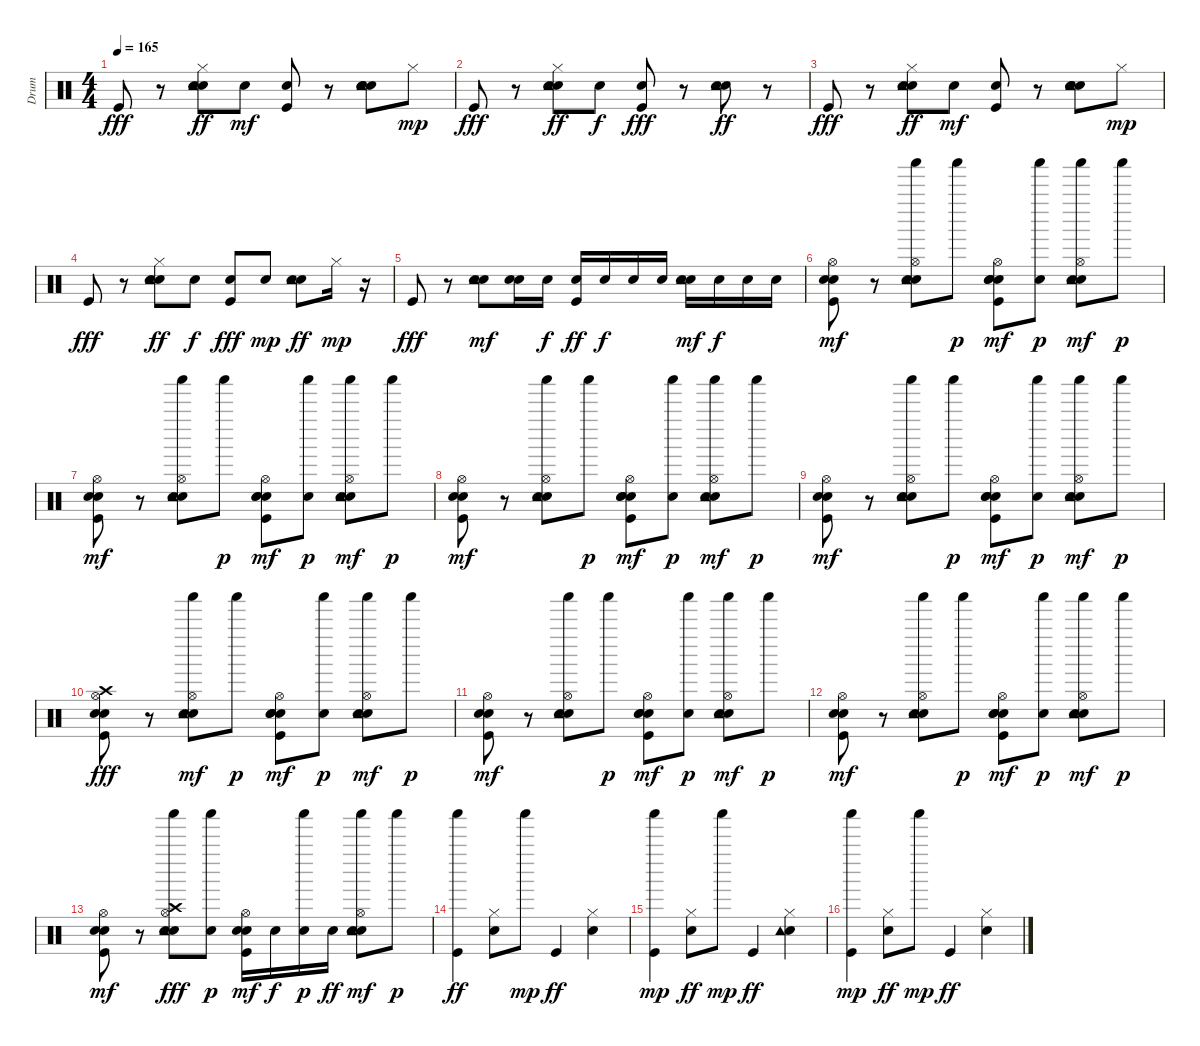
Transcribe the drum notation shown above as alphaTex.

\track ("Drum" "Drum") {instrument percussion}
\staff {score}
\articulation defaults
\ts (4 4)
\tempo 165
\clef neutral
\ks c "Kick (hit)".8{dy fff}
r.8 ("Hand Clap (hit)" "Hi-Hat (closed)" "Tambourine (hit)" "Electric Snare (hit)").8{dy ff} "Hand Clap (hit)".8{dy mf} ("Kick (hit)" "Snare (hit) 2").8 r.8 ("Hand Clap (hit)" "Tambourine (hit)" "Electric Snare (hit)" "Snare (hit) 2").8 "Hi-Hat (closed)".8{dy mp} |
"Kick (hit)".8{dy fff} r.8 ("Hand Clap (hit)" "Hi-Hat (closed)" "Tambourine (hit)" "Electric Snare (hit)").8{dy ff} "Hand Clap (hit)".8{dy f} ("Snare (hit) 2" "Kick (hit)").8{dy fff} r.8 ("Hand Clap (hit)" "Tambourine (hit)" "Electric Snare (hit)").8{dy ff} r.8 |
"Kick (hit)".8{dy fff} r.8 ("Hand Clap (hit)" "Hi-Hat (closed)" "Tambourine (hit)" "Electric Snare (hit)").8{dy ff} "Hand Clap (hit)".8{dy mf} ("Kick (hit)" "Snare (hit) 2").8 r.8 ("Hand Clap (hit)" "Tambourine (hit)" "Electric Snare (hit)" "Snare (hit) 2").8 "Hi-Hat (closed)".8{dy mp} |
"Kick (hit)".8{dy fff} r.8 ("Hand Clap (hit)" "Hi-Hat (closed)" "Tambourine (hit)" "Electric Snare (hit)").8{dy ff} "Hand Clap (hit)".8{dy f} ("Snare (hit) 2" "Kick (hit)").8{dy fff} "Snare (hit) 2".8{dy mp} ("Hand Clap (hit)" "Tambourine (hit)" "Electric Snare (hit)").8{dy ff} "Hi-Hat (closed)".16{dy mp} r.16 |
"Kick (hit)".8{dy fff} r.8 ("Hand Clap (hit)" "Tambourine (hit)" "Electric Snare (hit)").8{dy mf} ("Hand Clap (hit)" "Electric Snare (hit)").16 "Electric Snare (hit)".16{dy f} ("Kick (hit)" "Electric Snare (hit)").16{dy ff} "Electric Snare (hit)".16{dy f} "Electric Snare (hit)".16 "Electric Snare (hit)".16 ("Hand Clap (hit)" "Tambourine (hit)" "Electric Snare (hit)").16{dy mf} "Electric Snare (hit)".16{dy f} "Electric Snare (hit)".16 "Electric Snare (hit)".16 |
("Kick (hit)" "Hand Clap (hit)" "Electric Snare (hit)" "Hi-Hat (open)").8{dy mf} r.8 ("Hand Clap (hit)" "Electric Snare (hit)" "Shaker (hit)" "Tambourine (hit)" "Hi-Hat (open)").8 "Shaker (hit)".8{dy p} ("Snare (hit) 2" "Kick (hit)" "Hand Clap (hit)" "Electric Snare (hit)" "Hi-Hat (open)").8{dy mf} ("Snare (hit) 2" "Shaker (hit)").8{dy p} ("Hand Clap (hit)" "Tambourine (hit)" "Electric Snare (hit)" "Shaker (hit)" "Hi-Hat (open)").8{dy mf} "Shaker (hit)".8{dy p} |
("Kick (hit)" "Hand Clap (hit)" "Electric Snare (hit)" "Hi-Hat (open)").8{dy mf} r.8 ("Hand Clap (hit)" "Electric Snare (hit)" "Shaker (hit)" "Tambourine (hit)" "Hi-Hat (open)").8 "Shaker (hit)".8{dy p} ("Snare (hit) 2" "Kick (hit)" "Hand Clap (hit)" "Electric Snare (hit)" "Hi-Hat (open)").8{dy mf} ("Snare (hit) 2" "Shaker (hit)").8{dy p} ("Hand Clap (hit)" "Tambourine (hit)" "Electric Snare (hit)" "Shaker (hit)" "Hi-Hat (open)").8{dy mf} "Shaker (hit)".8{dy p} |
("Kick (hit)" "Hand Clap (hit)" "Electric Snare (hit)" "Hi-Hat (open)").8{dy mf} r.8 ("Hand Clap (hit)" "Electric Snare (hit)" "Shaker (hit)" "Tambourine (hit)" "Hi-Hat (open)").8 "Shaker (hit)".8{dy p} ("Snare (hit) 2" "Kick (hit)" "Hand Clap (hit)" "Electric Snare (hit)" "Hi-Hat (open)").8{dy mf} ("Snare (hit) 2" "Shaker (hit)").8{dy p} ("Hand Clap (hit)" "Tambourine (hit)" "Electric Snare (hit)" "Shaker (hit)" "Hi-Hat (open)").8{dy mf} "Shaker (hit)".8{dy p} |
("Kick (hit)" "Hand Clap (hit)" "Electric Snare (hit)" "Hi-Hat (open)").8{dy mf} r.8 ("Hand Clap (hit)" "Electric Snare (hit)" "Shaker (hit)" "Tambourine (hit)" "Hi-Hat (open)").8 "Shaker (hit)".8{dy p} ("Snare (hit) 2" "Kick (hit)" "Hand Clap (hit)" "Electric Snare (hit)" "Hi-Hat (open)").8{dy mf} ("Snare (hit) 2" "Shaker (hit)").8{dy p} ("Hand Clap (hit)" "Tambourine (hit)" "Electric Snare (hit)" "Shaker (hit)" "Hi-Hat (open)").8{dy mf} "Shaker (hit)".8{dy p} |
("Kick (hit)" "Hand Clap (hit)" "Electric Snare (hit)" "Hi-Hat (open)" "Crash high (hit)").8{dy fff} r.8 ("Hand Clap (hit)" "Electric Snare (hit)" "Shaker (hit)" "Tambourine (hit)" "Hi-Hat (open)").8{dy mf} "Shaker (hit)".8{dy p} ("Snare (hit) 2" "Kick (hit)" "Hand Clap (hit)" "Electric Snare (hit)" "Hi-Hat (open)").8{dy mf} ("Snare (hit) 2" "Shaker (hit)").8{dy p} ("Hand Clap (hit)" "Tambourine (hit)" "Electric Snare (hit)" "Shaker (hit)" "Hi-Hat (open)").8{dy mf} "Shaker (hit)".8{dy p} |
("Kick (hit)" "Hand Clap (hit)" "Electric Snare (hit)" "Hi-Hat (open)").8{dy mf} r.8 ("Hand Clap (hit)" "Electric Snare (hit)" "Shaker (hit)" "Tambourine (hit)" "Hi-Hat (open)").8 "Shaker (hit)".8{dy p} ("Snare (hit) 2" "Kick (hit)" "Hand Clap (hit)" "Electric Snare (hit)" "Hi-Hat (open)").8{dy mf} ("Snare (hit) 2" "Shaker (hit)").8{dy p} ("Hand Clap (hit)" "Tambourine (hit)" "Electric Snare (hit)" "Shaker (hit)" "Hi-Hat (open)").8{dy mf} "Shaker (hit)".8{dy p} |
("Kick (hit)" "Hand Clap (hit)" "Electric Snare (hit)" "Hi-Hat (open)").8{dy mf} r.8 ("Hand Clap (hit)" "Electric Snare (hit)" "Shaker (hit)" "Tambourine (hit)" "Hi-Hat (open)").8 "Shaker (hit)".8{dy p} ("Snare (hit) 2" "Kick (hit)" "Hand Clap (hit)" "Electric Snare (hit)" "Hi-Hat (open)").8{dy mf} ("Snare (hit) 2" "Shaker (hit)").8{dy p} ("Hand Clap (hit)" "Tambourine (hit)" "Electric Snare (hit)" "Shaker (hit)" "Hi-Hat (open)").8{dy mf} "Shaker (hit)".8{dy p} |
("Kick (hit)" "Hand Clap (hit)" "Electric Snare (hit)" "Hi-Hat (open)").8{dy mf} r.8 ("Hand Clap (hit)" "Electric Snare (hit)" "Shaker (hit)" "Tambourine (hit)" "Hi-Hat (open)" "Crash high (hit)").8{dy fff} ("Shaker (hit)" "Electric Snare (hit)").8{dy p} ("Kick (hit)" "Hand Clap (hit)" "Electric Snare (hit)" "Hi-Hat (open)").16{dy mf} "Electric Snare (hit)".16{dy f} ("Shaker (hit)" "Electric Snare (hit)").16{dy p} "Electric Snare (hit)".16{dy ff} ("Hand Clap (hit)" "Tambourine (hit)" "Electric Snare (hit)" "Shaker (hit)" "Hi-Hat (open)").8{dy mf} "Shaker (hit)".8{dy p} |
("Kick (hit)" "Shaker (hit)").4{dy ff} ("Electric Snare (hit)" "Hi-Hat (closed)").8 "Shaker (hit)".8{dy mp} "Kick (hit)".4{dy ff} ("Electric Snare (hit)" "Hi-Hat (closed)").4 |
("Kick (hit)" "Shaker (hit)").4{dy mp} ("Electric Snare (hit)" "Hi-Hat (closed)").8{dy ff} "Shaker (hit)".8{dy mp} "Kick (hit)".4{dy ff} ("Electric Snare (hit)" "Hi-Hat (closed)" "Tambourine (hit)").4 |
("Kick (hit)" "Shaker (hit)").4{dy mp} ("Electric Snare (hit)" "Hi-Hat (closed)").8{dy ff} "Shaker (hit)".8{dy mp} "Kick (hit)".4{dy ff} ("Electric Snare (hit)" "Hi-Hat (closed)").4
